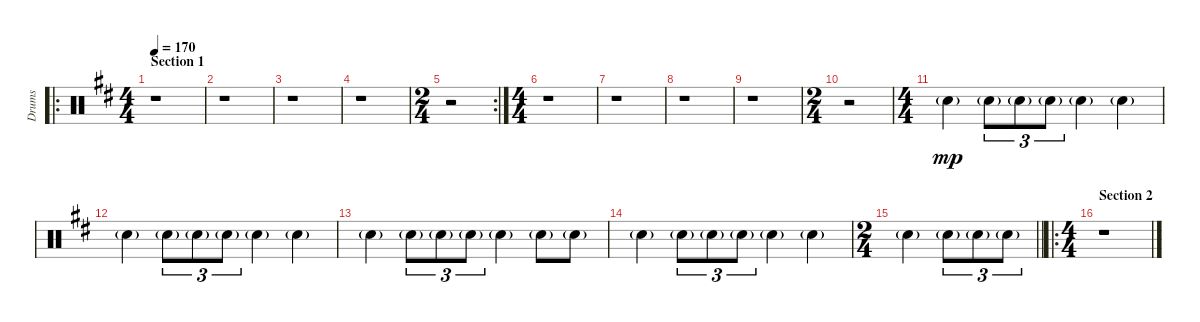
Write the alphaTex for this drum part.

\track ("Drums" "Drums") {instrument percussion}
\staff {score}
\articulation defaults
\ro
\ts (4 4)
\section ("" "Section 1")
\tempo 170
\clef neutral
\ks d
r.1{dy mp} |
r.1 |
r.1 |
r.1 |
\rc 2
\ts (2 4)
r.2 |
\ts (4 4)
r.1 |
r.1 |
r.1 |
r.1 |
\ts (2 4)
r.2 |
\ts (4 4)
"Snare (hit) 2"{g}.4 "Snare (hit) 2"{g}.8{tu (3 2)} "Snare (hit) 2"{g}.8{tu (3 2)} "Snare (hit) 2"{g}.8{tu (3 2)} "Snare (hit) 2"{g}.4 "Snare (hit) 2"{g}.4 |
"Snare (hit) 2"{g}.4 "Snare (hit) 2"{g}.8{tu (3 2)} "Snare (hit) 2"{g}.8{tu (3 2)} "Snare (hit) 2"{g}.8{tu (3 2)} "Snare (hit) 2"{g}.4 "Snare (hit) 2"{g}.4 |
"Snare (hit) 2"{g}.4 "Snare (hit) 2"{g}.8{tu (3 2)} "Snare (hit) 2"{g}.8{tu (3 2)} "Snare (hit) 2"{g}.8{tu (3 2)} "Snare (hit) 2"{g}.4 "Snare (hit) 2"{g}.8 "Snare (hit) 2"{g}.8 |
"Snare (hit) 2"{g}.4 "Snare (hit) 2"{g}.8{tu (3 2)} "Snare (hit) 2"{g}.8{tu (3 2)} "Snare (hit) 2"{g}.8{tu (3 2)} "Snare (hit) 2"{g}.4 "Snare (hit) 2"{g}.4 |
\ts (2 4)
\barLineRight lightlight "Snare (hit) 2"{g}.4 "Snare (hit) 2"{g}.8{tu (3 2)} "Snare (hit) 2"{g}.8{tu (3 2)} "Snare (hit) 2"{g}.8{tu (3 2)}
|
\ro
\ts (4 4)
\section ("" "Section 2")
r.1
